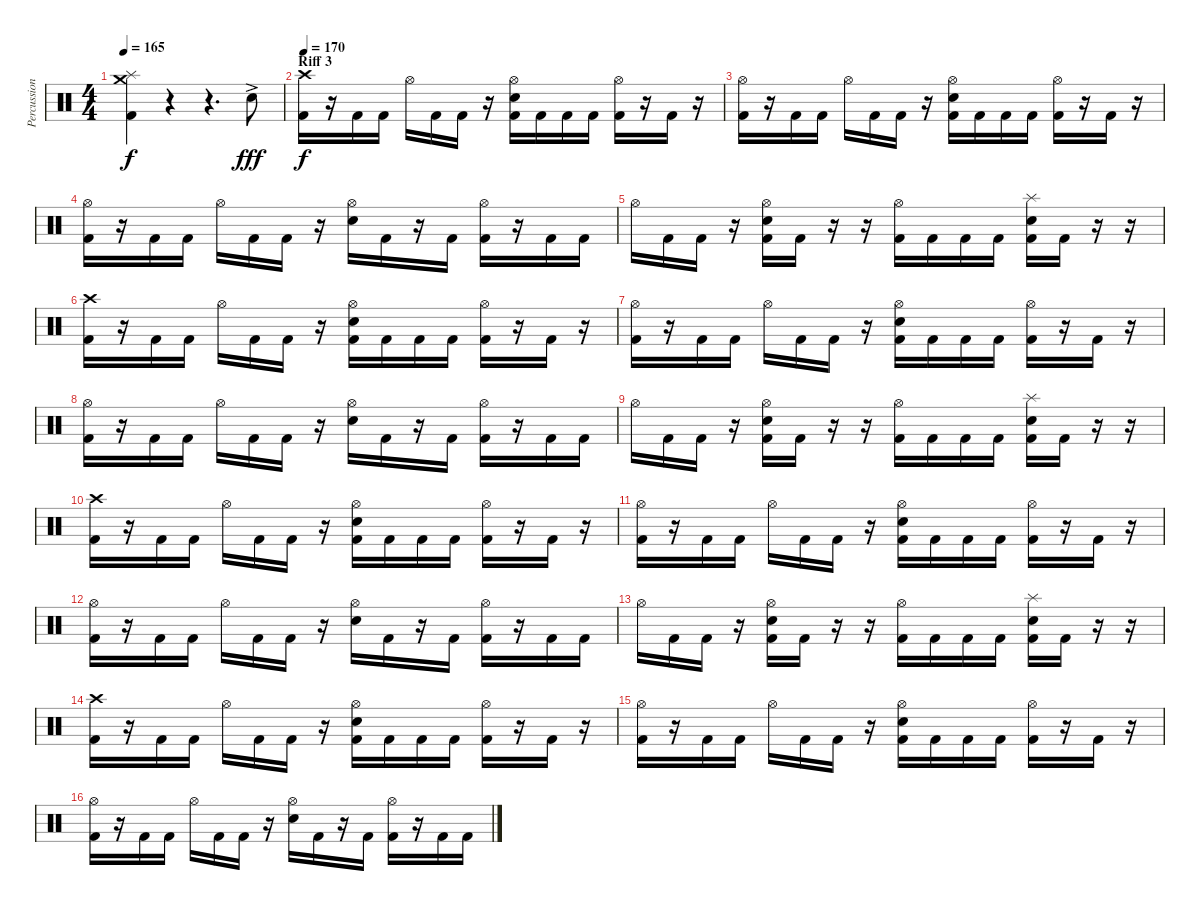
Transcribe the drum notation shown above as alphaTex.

\track ("Percussion" "Percussion") {instrument percussion}
\staff {score}
\articulation defaults
\ts (4 4)
\tempo 165
\clef neutral
\ks c
("Splash (hit)" "Crash medium (hit)" "Kick (hit) 2").4{dy f} r.4 r.4{d} "Electric Snare (hit)"{ac}.8{dy fff} |
\section ("" "Riff 3")
\tempo 170
("Crash high (hit)" "Kick (hit) 2").16{dy f} r.16 "Kick (hit) 2".16 "Kick (hit) 2".16 "Hi-Hat (open)".16 "Kick (hit) 2".16 "Kick (hit) 2".16 r.16 ("Hi-Hat (open)" "Electric Snare (hit)" "Kick (hit) 2").16 "Kick (hit) 2".16 "Kick (hit) 2".16 "Kick (hit) 2".16 ("Hi-Hat (open)" "Kick (hit) 2").16 r.16 "Kick (hit) 2".16 r.16 |
("Hi-Hat (open)" "Kick (hit) 2").16 r.16 "Kick (hit) 2".16 "Kick (hit) 2".16 "Hi-Hat (open)".16 "Kick (hit) 2".16 "Kick (hit) 2".16 r.16 ("Hi-Hat (open)" "Electric Snare (hit)" "Kick (hit) 2").16 "Kick (hit) 2".16 "Kick (hit) 2".16 "Kick (hit) 2".16 ("Hi-Hat (open)" "Kick (hit) 2").16 r.16 "Kick (hit) 2".16 r.16 |
("Hi-Hat (open)" "Kick (hit) 2").16 r.16 "Kick (hit) 2".16 "Kick (hit) 2".16 "Hi-Hat (open)".16 "Kick (hit) 2".16 "Kick (hit) 2".16 r.16 ("Hi-Hat (open)" "Electric Snare (hit)").16 "Kick (hit) 2".16 r.16 "Kick (hit) 2".16 ("Hi-Hat (open)" "Kick (hit) 2").16 r.16 "Kick (hit) 2".16 "Kick (hit) 2".16 |
"Hi-Hat (open)".16 "Kick (hit) 2".16 "Kick (hit) 2".16 r.16 ("Hi-Hat (open)" "Electric Snare (hit)" "Kick (hit) 2").16 "Kick (hit) 2".16 r.16 r.16 ("Hi-Hat (open)" "Kick (hit) 2").16 "Kick (hit) 2".16 "Kick (hit) 2".16 "Kick (hit) 2".16 ("Splash (hit)" "Electric Snare (hit)" "Kick (hit) 2").16 "Kick (hit) 2".16 r.16 r.16 |
("Crash high (hit)" "Kick (hit) 2").16 r.16 "Kick (hit) 2".16 "Kick (hit) 2".16 "Hi-Hat (open)".16 "Kick (hit) 2".16 "Kick (hit) 2".16 r.16 ("Hi-Hat (open)" "Electric Snare (hit)" "Kick (hit) 2").16 "Kick (hit) 2".16 "Kick (hit) 2".16 "Kick (hit) 2".16 ("Hi-Hat (open)" "Kick (hit) 2").16 r.16 "Kick (hit) 2".16 r.16 |
("Hi-Hat (open)" "Kick (hit) 2").16 r.16 "Kick (hit) 2".16 "Kick (hit) 2".16 "Hi-Hat (open)".16 "Kick (hit) 2".16 "Kick (hit) 2".16 r.16 ("Hi-Hat (open)" "Electric Snare (hit)" "Kick (hit) 2").16 "Kick (hit) 2".16 "Kick (hit) 2".16 "Kick (hit) 2".16 ("Hi-Hat (open)" "Kick (hit) 2").16 r.16 "Kick (hit) 2".16 r.16 |
("Hi-Hat (open)" "Kick (hit) 2").16 r.16 "Kick (hit) 2".16 "Kick (hit) 2".16 "Hi-Hat (open)".16 "Kick (hit) 2".16 "Kick (hit) 2".16 r.16 ("Hi-Hat (open)" "Electric Snare (hit)").16 "Kick (hit) 2".16 r.16 "Kick (hit) 2".16 ("Hi-Hat (open)" "Kick (hit) 2").16 r.16 "Kick (hit) 2".16 "Kick (hit) 2".16 |
"Hi-Hat (open)".16 "Kick (hit) 2".16 "Kick (hit) 2".16 r.16 ("Hi-Hat (open)" "Electric Snare (hit)" "Kick (hit) 2").16 "Kick (hit) 2".16 r.16 r.16 ("Hi-Hat (open)" "Kick (hit) 2").16 "Kick (hit) 2".16 "Kick (hit) 2".16 "Kick (hit) 2".16 ("Splash (hit)" "Electric Snare (hit)" "Kick (hit) 2").16 "Kick (hit) 2".16 r.16 r.16 |
("Crash high (hit)" "Kick (hit) 2").16 r.16 "Kick (hit) 2".16 "Kick (hit) 2".16 "Hi-Hat (open)".16 "Kick (hit) 2".16 "Kick (hit) 2".16 r.16 ("Hi-Hat (open)" "Electric Snare (hit)" "Kick (hit) 2").16 "Kick (hit) 2".16 "Kick (hit) 2".16 "Kick (hit) 2".16 ("Hi-Hat (open)" "Kick (hit) 2").16 r.16 "Kick (hit) 2".16 r.16 |
("Hi-Hat (open)" "Kick (hit) 2").16 r.16 "Kick (hit) 2".16 "Kick (hit) 2".16 "Hi-Hat (open)".16 "Kick (hit) 2".16 "Kick (hit) 2".16 r.16 ("Hi-Hat (open)" "Electric Snare (hit)" "Kick (hit) 2").16 "Kick (hit) 2".16 "Kick (hit) 2".16 "Kick (hit) 2".16 ("Hi-Hat (open)" "Kick (hit) 2").16 r.16 "Kick (hit) 2".16 r.16 |
("Hi-Hat (open)" "Kick (hit) 2").16 r.16 "Kick (hit) 2".16 "Kick (hit) 2".16 "Hi-Hat (open)".16 "Kick (hit) 2".16 "Kick (hit) 2".16 r.16 ("Hi-Hat (open)" "Electric Snare (hit)").16 "Kick (hit) 2".16 r.16 "Kick (hit) 2".16 ("Hi-Hat (open)" "Kick (hit) 2").16 r.16 "Kick (hit) 2".16 "Kick (hit) 2".16 |
"Hi-Hat (open)".16 "Kick (hit) 2".16 "Kick (hit) 2".16 r.16 ("Hi-Hat (open)" "Electric Snare (hit)" "Kick (hit) 2").16 "Kick (hit) 2".16 r.16 r.16 ("Hi-Hat (open)" "Kick (hit) 2").16 "Kick (hit) 2".16 "Kick (hit) 2".16 "Kick (hit) 2".16 ("Splash (hit)" "Electric Snare (hit)" "Kick (hit) 2").16 "Kick (hit) 2".16 r.16 r.16 |
("Crash high (hit)" "Kick (hit) 2").16 r.16 "Kick (hit) 2".16 "Kick (hit) 2".16 "Hi-Hat (open)".16 "Kick (hit) 2".16 "Kick (hit) 2".16 r.16 ("Hi-Hat (open)" "Electric Snare (hit)" "Kick (hit) 2").16 "Kick (hit) 2".16 "Kick (hit) 2".16 "Kick (hit) 2".16 ("Hi-Hat (open)" "Kick (hit) 2").16 r.16 "Kick (hit) 2".16 r.16 |
("Hi-Hat (open)" "Kick (hit) 2").16 r.16 "Kick (hit) 2".16 "Kick (hit) 2".16 "Hi-Hat (open)".16 "Kick (hit) 2".16 "Kick (hit) 2".16 r.16 ("Hi-Hat (open)" "Electric Snare (hit)" "Kick (hit) 2").16 "Kick (hit) 2".16 "Kick (hit) 2".16 "Kick (hit) 2".16 ("Hi-Hat (open)" "Kick (hit) 2").16 r.16 "Kick (hit) 2".16 r.16 |
("Hi-Hat (open)" "Kick (hit) 2").16 r.16 "Kick (hit) 2".16 "Kick (hit) 2".16 "Hi-Hat (open)".16 "Kick (hit) 2".16 "Kick (hit) 2".16 r.16 ("Hi-Hat (open)" "Electric Snare (hit)").16 "Kick (hit) 2".16 r.16 "Kick (hit) 2".16 ("Hi-Hat (open)" "Kick (hit) 2").16 r.16 "Kick (hit) 2".16 "Kick (hit) 2".16
